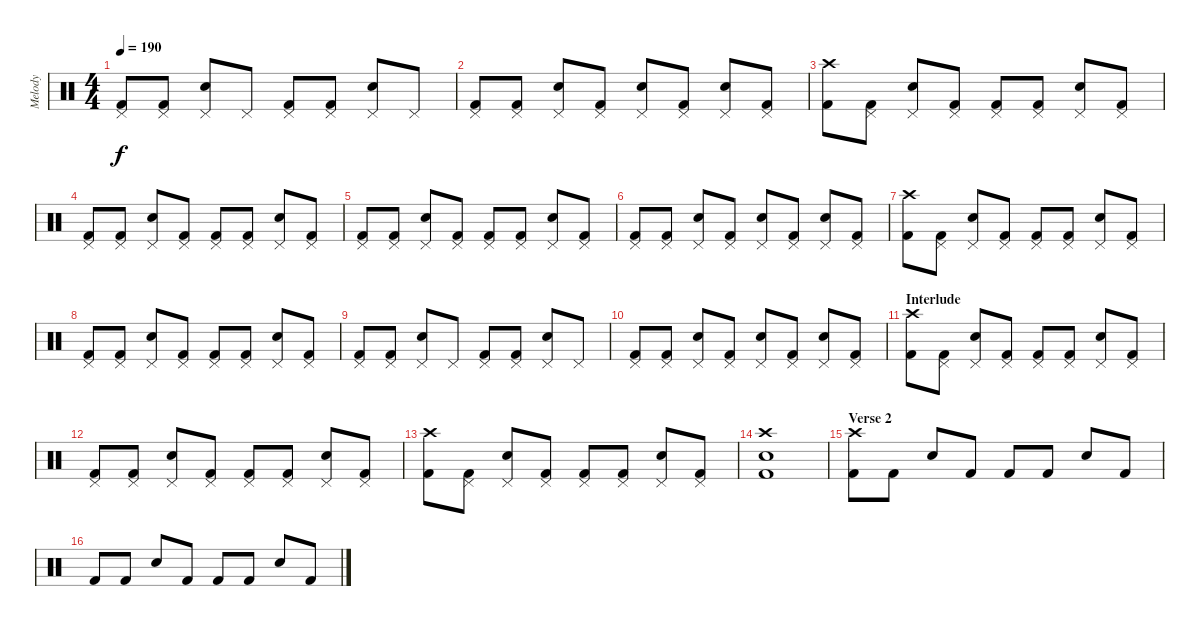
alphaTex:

\track ("Melody" "Melody") {instrument percussion}
\staff {score}
\articulation defaults
\ts (4 4)
\tempo 190
\clef neutral
\ks c
("Pedal Hi-Hat (hit)" "Kick (hit) 2").8{dy f} ("Pedal Hi-Hat (hit)" "Kick (hit) 2").8 ("Pedal Hi-Hat (hit)" "Snare (hit) 2").8 "Pedal Hi-Hat (hit)".8 ("Pedal Hi-Hat (hit)" "Kick (hit) 2").8 ("Pedal Hi-Hat (hit)" "Kick (hit) 2").8 ("Pedal Hi-Hat (hit)" "Snare (hit) 2").8 "Pedal Hi-Hat (hit)".8 |
("Pedal Hi-Hat (hit)" "Kick (hit) 2").8 ("Pedal Hi-Hat (hit)" "Kick (hit) 2").8 ("Pedal Hi-Hat (hit)" "Snare (hit) 2").8 ("Pedal Hi-Hat (hit)" "Kick (hit) 2").8 ("Pedal Hi-Hat (hit)" "Snare (hit) 2").8 ("Pedal Hi-Hat (hit)" "Kick (hit) 2").8 ("Pedal Hi-Hat (hit)" "Snare (hit) 2").8 ("Pedal Hi-Hat (hit)" "Kick (hit) 2").8 |
("Crash high (hit)" "Kick (hit) 2").8 ("Pedal Hi-Hat (hit)" "Kick (hit) 2").8 ("Pedal Hi-Hat (hit)" "Snare (hit) 2").8 ("Pedal Hi-Hat (hit)" "Kick (hit) 2").8 ("Pedal Hi-Hat (hit)" "Kick (hit) 2").8 ("Pedal Hi-Hat (hit)" "Kick (hit) 2").8 ("Pedal Hi-Hat (hit)" "Snare (hit) 2").8 ("Pedal Hi-Hat (hit)" "Kick (hit) 2").8 |
("Pedal Hi-Hat (hit)" "Kick (hit) 2").8 ("Pedal Hi-Hat (hit)" "Kick (hit) 2").8 ("Pedal Hi-Hat (hit)" "Snare (hit) 2").8 ("Pedal Hi-Hat (hit)" "Kick (hit) 2").8 ("Pedal Hi-Hat (hit)" "Kick (hit) 2").8 ("Pedal Hi-Hat (hit)" "Kick (hit) 2").8 ("Pedal Hi-Hat (hit)" "Snare (hit) 2").8 ("Pedal Hi-Hat (hit)" "Kick (hit) 2").8 |
("Pedal Hi-Hat (hit)" "Kick (hit) 2").8 ("Pedal Hi-Hat (hit)" "Kick (hit) 2").8 ("Pedal Hi-Hat (hit)" "Snare (hit) 2").8 ("Pedal Hi-Hat (hit)" "Kick (hit) 2").8 ("Pedal Hi-Hat (hit)" "Kick (hit) 2").8 ("Pedal Hi-Hat (hit)" "Kick (hit) 2").8 ("Pedal Hi-Hat (hit)" "Snare (hit) 2").8 ("Pedal Hi-Hat (hit)" "Kick (hit) 2").8 |
("Pedal Hi-Hat (hit)" "Kick (hit) 2").8 ("Pedal Hi-Hat (hit)" "Kick (hit) 2").8 ("Pedal Hi-Hat (hit)" "Snare (hit) 2").8 ("Pedal Hi-Hat (hit)" "Kick (hit) 2").8 ("Pedal Hi-Hat (hit)" "Snare (hit) 2").8 ("Pedal Hi-Hat (hit)" "Kick (hit) 2").8 ("Pedal Hi-Hat (hit)" "Snare (hit) 2").8 ("Pedal Hi-Hat (hit)" "Kick (hit) 2").8 |
("Crash high (hit)" "Kick (hit) 2").8 ("Pedal Hi-Hat (hit)" "Kick (hit) 2").8 ("Pedal Hi-Hat (hit)" "Snare (hit) 2").8 ("Pedal Hi-Hat (hit)" "Kick (hit) 2").8 ("Pedal Hi-Hat (hit)" "Kick (hit) 2").8 ("Pedal Hi-Hat (hit)" "Kick (hit) 2").8 ("Pedal Hi-Hat (hit)" "Snare (hit) 2").8 ("Pedal Hi-Hat (hit)" "Kick (hit) 2").8 |
("Pedal Hi-Hat (hit)" "Kick (hit) 2").8 ("Pedal Hi-Hat (hit)" "Kick (hit) 2").8 ("Pedal Hi-Hat (hit)" "Snare (hit) 2").8 ("Pedal Hi-Hat (hit)" "Kick (hit) 2").8 ("Pedal Hi-Hat (hit)" "Kick (hit) 2").8 ("Pedal Hi-Hat (hit)" "Kick (hit) 2").8 ("Pedal Hi-Hat (hit)" "Snare (hit) 2").8 ("Pedal Hi-Hat (hit)" "Kick (hit) 2").8 |
("Pedal Hi-Hat (hit)" "Kick (hit) 2").8 ("Pedal Hi-Hat (hit)" "Kick (hit) 2").8 ("Pedal Hi-Hat (hit)" "Snare (hit) 2").8 "Pedal Hi-Hat (hit)".8 ("Pedal Hi-Hat (hit)" "Kick (hit) 2").8 ("Pedal Hi-Hat (hit)" "Kick (hit) 2").8 ("Pedal Hi-Hat (hit)" "Snare (hit) 2").8 "Pedal Hi-Hat (hit)".8 |
("Pedal Hi-Hat (hit)" "Kick (hit) 2").8 ("Pedal Hi-Hat (hit)" "Kick (hit) 2").8 ("Pedal Hi-Hat (hit)" "Snare (hit) 2").8 ("Pedal Hi-Hat (hit)" "Kick (hit) 2").8 ("Pedal Hi-Hat (hit)" "Snare (hit) 2").8 ("Pedal Hi-Hat (hit)" "Kick (hit) 2").8 ("Pedal Hi-Hat (hit)" "Snare (hit) 2").8 ("Pedal Hi-Hat (hit)" "Kick (hit) 2").8 |
\section ("" "Interlude")
("Crash high (hit)" "Kick (hit) 2").8 ("Pedal Hi-Hat (hit)" "Kick (hit) 2").8 ("Pedal Hi-Hat (hit)" "Snare (hit) 2").8 ("Pedal Hi-Hat (hit)" "Kick (hit) 2").8 ("Pedal Hi-Hat (hit)" "Kick (hit) 2").8 ("Pedal Hi-Hat (hit)" "Kick (hit) 2").8 ("Pedal Hi-Hat (hit)" "Snare (hit) 2").8 ("Pedal Hi-Hat (hit)" "Kick (hit) 2").8 |
("Pedal Hi-Hat (hit)" "Kick (hit) 2").8 ("Pedal Hi-Hat (hit)" "Kick (hit) 2").8 ("Pedal Hi-Hat (hit)" "Snare (hit) 2").8 ("Pedal Hi-Hat (hit)" "Kick (hit) 2").8 ("Pedal Hi-Hat (hit)" "Kick (hit) 2").8 ("Pedal Hi-Hat (hit)" "Kick (hit) 2").8 ("Pedal Hi-Hat (hit)" "Snare (hit) 2").8 ("Pedal Hi-Hat (hit)" "Kick (hit) 2").8 |
("Crash high (hit)" "Kick (hit) 2").8 ("Pedal Hi-Hat (hit)" "Kick (hit) 2").8 ("Pedal Hi-Hat (hit)" "Snare (hit) 2").8 ("Pedal Hi-Hat (hit)" "Kick (hit) 2").8 ("Pedal Hi-Hat (hit)" "Kick (hit) 2").8 ("Pedal Hi-Hat (hit)" "Kick (hit) 2").8 ("Pedal Hi-Hat (hit)" "Snare (hit) 2").8 ("Pedal Hi-Hat (hit)" "Kick (hit) 2").8 |
("Crash high (hit)" "Snare (hit) 2" "Kick (hit) 2").1 |
\section ("" "Verse 2")
("Crash high (hit)" "Kick (hit) 2").8 "Kick (hit) 2".8 "Snare (hit) 2".8 "Kick (hit) 2".8 "Kick (hit) 2".8 "Kick (hit) 2".8 "Snare (hit) 2".8 "Kick (hit) 2".8 |
"Kick (hit) 2".8 "Kick (hit) 2".8 "Snare (hit) 2".8 "Kick (hit) 2".8 "Kick (hit) 2".8 "Kick (hit) 2".8 "Snare (hit) 2".8 "Kick (hit) 2".8
